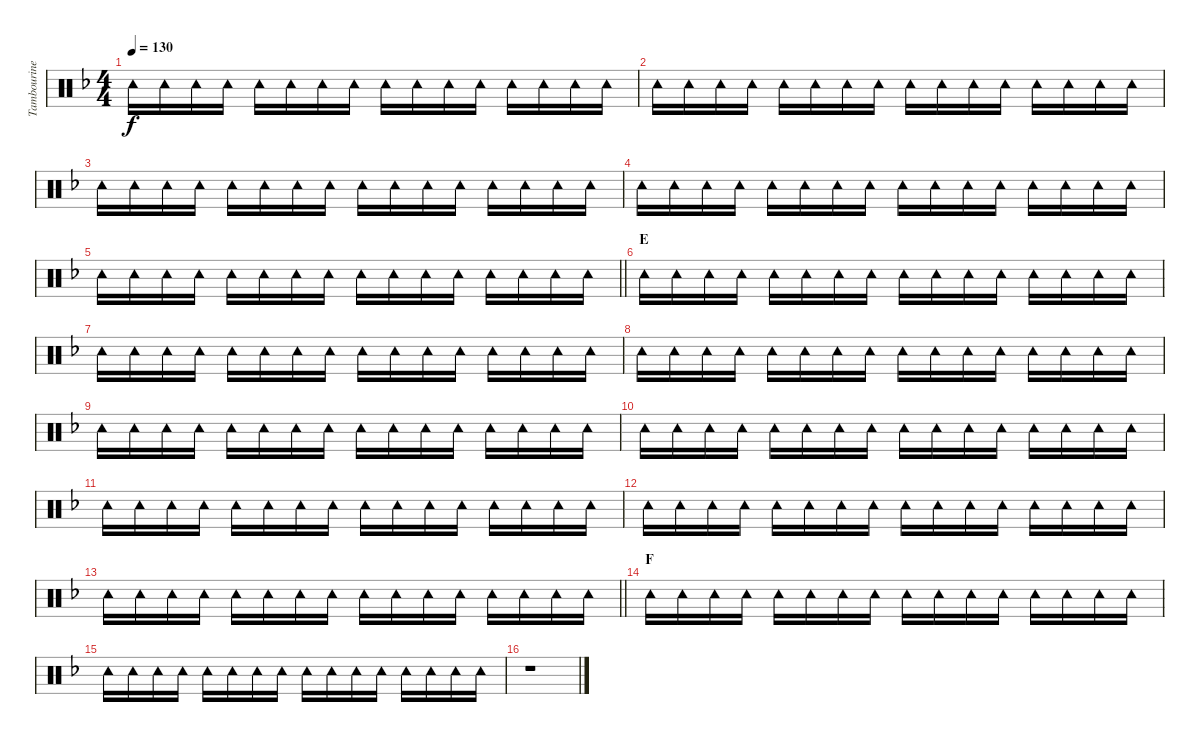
\track ("Tambourine" "Tambourine") {instrument percussion}
\staff {score}
\articulation defaults
\ts (4 4)
\tempo 130
\clef neutral
\ks f "Tambourine (hit)".16{dy f} "Tambourine (hit)".16 "Tambourine (hit)".16 "Tambourine (hit)".16 "Tambourine (hit)".16 "Tambourine (hit)".16 "Tambourine (hit)".16 "Tambourine (hit)".16 "Tambourine (hit)".16 "Tambourine (hit)".16 "Tambourine (hit)".16 "Tambourine (hit)".16 "Tambourine (hit)".16 "Tambourine (hit)".16 "Tambourine (hit)".16 "Tambourine (hit)".16
|
"Tambourine (hit)".16 "Tambourine (hit)".16 "Tambourine (hit)".16 "Tambourine (hit)".16 "Tambourine (hit)".16 "Tambourine (hit)".16 "Tambourine (hit)".16 "Tambourine (hit)".16 "Tambourine (hit)".16 "Tambourine (hit)".16 "Tambourine (hit)".16 "Tambourine (hit)".16 "Tambourine (hit)".16 "Tambourine (hit)".16 "Tambourine (hit)".16 "Tambourine (hit)".16 |
"Tambourine (hit)".16 "Tambourine (hit)".16 "Tambourine (hit)".16 "Tambourine (hit)".16 "Tambourine (hit)".16 "Tambourine (hit)".16 "Tambourine (hit)".16 "Tambourine (hit)".16 "Tambourine (hit)".16 "Tambourine (hit)".16 "Tambourine (hit)".16 "Tambourine (hit)".16 "Tambourine (hit)".16 "Tambourine (hit)".16 "Tambourine (hit)".16 "Tambourine (hit)".16 |
"Tambourine (hit)".16 "Tambourine (hit)".16 "Tambourine (hit)".16 "Tambourine (hit)".16 "Tambourine (hit)".16 "Tambourine (hit)".16 "Tambourine (hit)".16 "Tambourine (hit)".16 "Tambourine (hit)".16 "Tambourine (hit)".16 "Tambourine (hit)".16 "Tambourine (hit)".16 "Tambourine (hit)".16 "Tambourine (hit)".16 "Tambourine (hit)".16 "Tambourine (hit)".16 |
\barLineRight lightlight "Tambourine (hit)".16 "Tambourine (hit)".16 "Tambourine (hit)".16 "Tambourine (hit)".16 "Tambourine (hit)".16 "Tambourine (hit)".16 "Tambourine (hit)".16 "Tambourine (hit)".16 "Tambourine (hit)".16 "Tambourine (hit)".16 "Tambourine (hit)".16 "Tambourine (hit)".16 "Tambourine (hit)".16 "Tambourine (hit)".16 "Tambourine (hit)".16 "Tambourine (hit)".16
|
\section ("" "E")
"Tambourine (hit)".16 "Tambourine (hit)".16 "Tambourine (hit)".16 "Tambourine (hit)".16 "Tambourine (hit)".16 "Tambourine (hit)".16 "Tambourine (hit)".16 "Tambourine (hit)".16 "Tambourine (hit)".16 "Tambourine (hit)".16 "Tambourine (hit)".16 "Tambourine (hit)".16 "Tambourine (hit)".16 "Tambourine (hit)".16 "Tambourine (hit)".16 "Tambourine (hit)".16 |
"Tambourine (hit)".16 "Tambourine (hit)".16 "Tambourine (hit)".16 "Tambourine (hit)".16 "Tambourine (hit)".16 "Tambourine (hit)".16 "Tambourine (hit)".16 "Tambourine (hit)".16 "Tambourine (hit)".16 "Tambourine (hit)".16 "Tambourine (hit)".16 "Tambourine (hit)".16 "Tambourine (hit)".16 "Tambourine (hit)".16 "Tambourine (hit)".16 "Tambourine (hit)".16 |
"Tambourine (hit)".16 "Tambourine (hit)".16 "Tambourine (hit)".16 "Tambourine (hit)".16 "Tambourine (hit)".16 "Tambourine (hit)".16 "Tambourine (hit)".16 "Tambourine (hit)".16 "Tambourine (hit)".16 "Tambourine (hit)".16 "Tambourine (hit)".16 "Tambourine (hit)".16 "Tambourine (hit)".16 "Tambourine (hit)".16 "Tambourine (hit)".16 "Tambourine (hit)".16 |
"Tambourine (hit)".16 "Tambourine (hit)".16 "Tambourine (hit)".16 "Tambourine (hit)".16 "Tambourine (hit)".16 "Tambourine (hit)".16 "Tambourine (hit)".16 "Tambourine (hit)".16 "Tambourine (hit)".16 "Tambourine (hit)".16 "Tambourine (hit)".16 "Tambourine (hit)".16 "Tambourine (hit)".16 "Tambourine (hit)".16 "Tambourine (hit)".16 "Tambourine (hit)".16 |
"Tambourine (hit)".16 "Tambourine (hit)".16 "Tambourine (hit)".16 "Tambourine (hit)".16 "Tambourine (hit)".16 "Tambourine (hit)".16 "Tambourine (hit)".16 "Tambourine (hit)".16 "Tambourine (hit)".16 "Tambourine (hit)".16 "Tambourine (hit)".16 "Tambourine (hit)".16 "Tambourine (hit)".16 "Tambourine (hit)".16 "Tambourine (hit)".16 "Tambourine (hit)".16 |
"Tambourine (hit)".16 "Tambourine (hit)".16 "Tambourine (hit)".16 "Tambourine (hit)".16 "Tambourine (hit)".16 "Tambourine (hit)".16 "Tambourine (hit)".16 "Tambourine (hit)".16 "Tambourine (hit)".16 "Tambourine (hit)".16 "Tambourine (hit)".16 "Tambourine (hit)".16 "Tambourine (hit)".16 "Tambourine (hit)".16 "Tambourine (hit)".16 "Tambourine (hit)".16 |
"Tambourine (hit)".16 "Tambourine (hit)".16 "Tambourine (hit)".16 "Tambourine (hit)".16 "Tambourine (hit)".16 "Tambourine (hit)".16 "Tambourine (hit)".16 "Tambourine (hit)".16 "Tambourine (hit)".16 "Tambourine (hit)".16 "Tambourine (hit)".16 "Tambourine (hit)".16 "Tambourine (hit)".16 "Tambourine (hit)".16 "Tambourine (hit)".16 "Tambourine (hit)".16 |
\barLineRight lightlight "Tambourine (hit)".16 "Tambourine (hit)".16 "Tambourine (hit)".16 "Tambourine (hit)".16 "Tambourine (hit)".16 "Tambourine (hit)".16 "Tambourine (hit)".16 "Tambourine (hit)".16 "Tambourine (hit)".16 "Tambourine (hit)".16 "Tambourine (hit)".16 "Tambourine (hit)".16 "Tambourine (hit)".16 "Tambourine (hit)".16 "Tambourine (hit)".16 "Tambourine (hit)".16
|
\section ("" "F")
"Tambourine (hit)".16 "Tambourine (hit)".16 "Tambourine (hit)".16 "Tambourine (hit)".16 "Tambourine (hit)".16 "Tambourine (hit)".16 "Tambourine (hit)".16 "Tambourine (hit)".16 "Tambourine (hit)".16 "Tambourine (hit)".16 "Tambourine (hit)".16 "Tambourine (hit)".16 "Tambourine (hit)".16 "Tambourine (hit)".16 "Tambourine (hit)".16 "Tambourine (hit)".16 |
"Tambourine (hit)".16 "Tambourine (hit)".16 "Tambourine (hit)".16 "Tambourine (hit)".16 "Tambourine (hit)".16 "Tambourine (hit)".16 "Tambourine (hit)".16 "Tambourine (hit)".16 "Tambourine (hit)".16 "Tambourine (hit)".16 "Tambourine (hit)".16 "Tambourine (hit)".16 "Tambourine (hit)".16 "Tambourine (hit)".16 "Tambourine (hit)".16 "Tambourine (hit)".16 |
r.1
